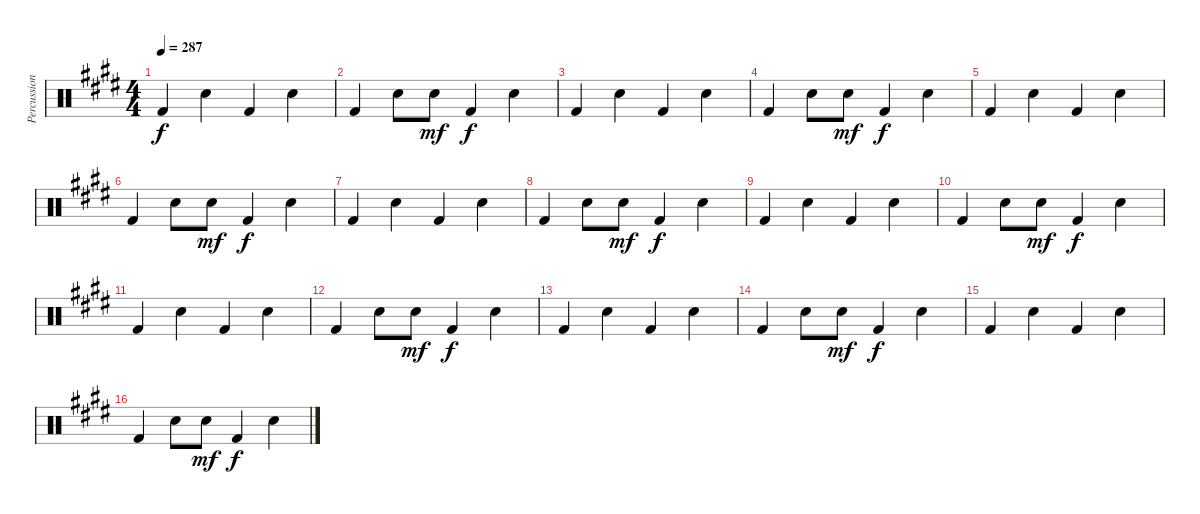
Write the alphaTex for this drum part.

\track ("Percussion" "Percussion") {instrument percussion}
\staff {score}
\articulation defaults
\ts (4 4)
\tempo 287
\clef neutral
\ks c#minor "Kick (hit) 2".4{dy f} "Electric Snare (hit)".4 "Kick (hit) 2".4 "Electric Snare (hit)".4
|
"Kick (hit) 2".4 "Electric Snare (hit)".8 "Electric Snare (hit)".8{dy mf} "Kick (hit) 2".4{dy f} "Electric Snare (hit)".4 |
"Kick (hit) 2".4 "Electric Snare (hit)".4 "Kick (hit) 2".4 "Electric Snare (hit)".4 |
"Kick (hit) 2".4 "Electric Snare (hit)".8 "Electric Snare (hit)".8{dy mf} "Kick (hit) 2".4{dy f} "Electric Snare (hit)".4 |
"Kick (hit) 2".4 "Electric Snare (hit)".4 "Kick (hit) 2".4 "Electric Snare (hit)".4 |
"Kick (hit) 2".4 "Electric Snare (hit)".8 "Electric Snare (hit)".8{dy mf} "Kick (hit) 2".4{dy f} "Electric Snare (hit)".4 |
"Kick (hit) 2".4 "Electric Snare (hit)".4 "Kick (hit) 2".4 "Electric Snare (hit)".4 |
"Kick (hit) 2".4 "Electric Snare (hit)".8 "Electric Snare (hit)".8{dy mf} "Kick (hit) 2".4{dy f} "Electric Snare (hit)".4 |
"Kick (hit) 2".4 "Electric Snare (hit)".4 "Kick (hit) 2".4 "Electric Snare (hit)".4 |
"Kick (hit) 2".4 "Electric Snare (hit)".8 "Electric Snare (hit)".8{dy mf} "Kick (hit) 2".4{dy f} "Electric Snare (hit)".4 |
"Kick (hit) 2".4 "Electric Snare (hit)".4 "Kick (hit) 2".4 "Electric Snare (hit)".4 |
"Kick (hit) 2".4 "Electric Snare (hit)".8 "Electric Snare (hit)".8{dy mf} "Kick (hit) 2".4{dy f} "Electric Snare (hit)".4 |
"Kick (hit) 2".4 "Electric Snare (hit)".4 "Kick (hit) 2".4 "Electric Snare (hit)".4 |
"Kick (hit) 2".4 "Electric Snare (hit)".8 "Electric Snare (hit)".8{dy mf} "Kick (hit) 2".4{dy f} "Electric Snare (hit)".4 |
"Kick (hit) 2".4 "Electric Snare (hit)".4 "Kick (hit) 2".4 "Electric Snare (hit)".4 |
"Kick (hit) 2".4 "Electric Snare (hit)".8 "Electric Snare (hit)".8{dy mf} "Kick (hit) 2".4{dy f} "Electric Snare (hit)".4
